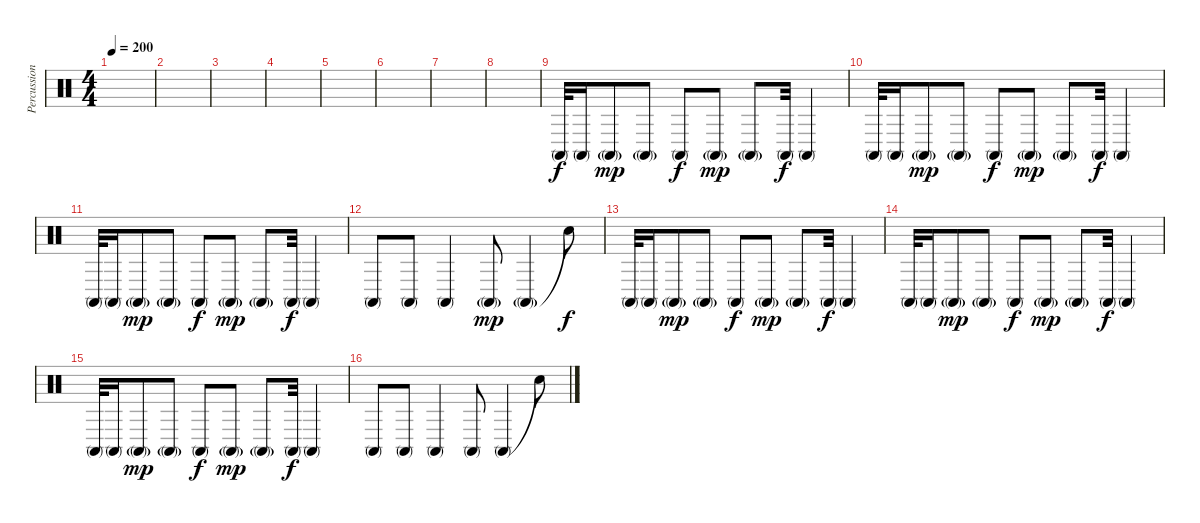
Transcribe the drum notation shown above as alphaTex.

\track ("Percussion 2" "Percussion") {instrument percussion}
\staff {score}
\articulation defaults
\ts (4 4)
\tempo 200
\clef neutral
\ks c
|
|
|
|
|
|
|
|
"Conga high (mute)".32 "Conga high (mute)".16 "Conga high (mute)"{g}.8{dy mp} "Conga high (mute)"{g}.8 "Conga high (mute)".8{dy f} "Conga high (mute)"{g}.8{dy mp} "Conga high (mute)"{g}.8 "Conga high (mute)".32{dy f} "Conga high (mute)".4 |
"Conga high (mute)".32 "Conga high (mute)".16 "Conga high (mute)"{g}.8{dy mp} "Conga high (mute)"{g}.8 "Conga high (mute)".8{dy f} "Conga high (mute)"{g}.8{dy mp} "Conga high (mute)"{g}.8 "Conga high (mute)".32{dy f} "Conga high (mute)".4 |
"Conga high (mute)".32 "Conga high (mute)".16 "Conga high (mute)"{g}.8{dy mp} "Conga high (mute)"{g}.8 "Conga high (mute)".8{dy f} "Conga high (mute)"{g}.8{dy mp} "Conga high (mute)"{g}.8 "Conga high (mute)".32{dy f} "Conga high (mute)".4 |
"Conga high (mute)".8 "Conga high (mute)".8 "Conga high (mute)".4 "Conga high (mute)"{g}.8{dy mp} "Conga high (mute)"{g}.4 "Snare (hit)"{t}.8{dy f} |
"Conga high (mute)".32 "Conga high (mute)".16 "Conga high (mute)"{g}.8{dy mp} "Conga high (mute)"{g}.8 "Conga high (mute)".8{dy f} "Conga high (mute)"{g}.8{dy mp} "Conga high (mute)"{g}.8 "Conga high (mute)".32{dy f} "Conga high (mute)".4 |
"Conga high (mute)".32 "Conga high (mute)".16 "Conga high (mute)"{g}.8{dy mp} "Conga high (mute)"{g}.8 "Conga high (mute)".8{dy f} "Conga high (mute)"{g}.8{dy mp} "Conga high (mute)"{g}.8 "Conga high (mute)".32{dy f} "Conga high (mute)".4 |
"Conga high (mute)".32 "Conga high (mute)".16 "Conga high (mute)"{g}.8{dy mp} "Conga high (mute)"{g}.8 "Conga high (mute)".8{dy f} "Conga high (mute)"{g}.8{dy mp} "Conga high (mute)"{g}.8 "Conga high (mute)".32{dy f} "Conga high (mute)".4 |
"Conga high (mute)".8 "Conga high (mute)".8 "Conga high (mute)".4 "Conga high (mute)".8 "Conga high (mute)".4 "Snare (hit)"{t}.8
